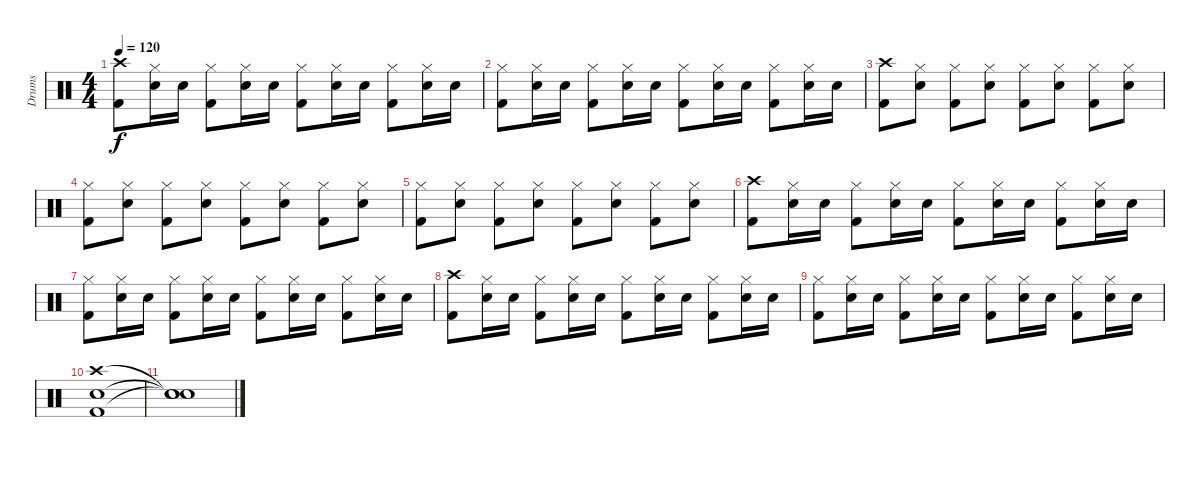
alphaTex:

\track ("Drums" "Drums") {instrument percussion}
\staff {score}
\articulation defaults
\ts (4 4)
\tempo 120
\clef neutral
\ks c
("Crash high (hit)" "Kick (hit) 2").8{dy f} ("Hi-Hat (closed)" "Electric Snare (hit)").16 "Electric Snare (hit)".16 ("Hi-Hat (closed)" "Kick (hit) 2").8 ("Hi-Hat (closed)" "Electric Snare (hit)").16 "Electric Snare (hit)".16 ("Hi-Hat (closed)" "Kick (hit) 2").8 ("Hi-Hat (closed)" "Electric Snare (hit)").16 "Electric Snare (hit)".16 ("Hi-Hat (closed)" "Kick (hit) 2").8 ("Hi-Hat (closed)" "Electric Snare (hit)").16 "Electric Snare (hit)".16 |
("Hi-Hat (closed)" "Kick (hit) 2").8 ("Hi-Hat (closed)" "Electric Snare (hit)").16 "Electric Snare (hit)".16 ("Hi-Hat (closed)" "Kick (hit) 2").8 ("Hi-Hat (closed)" "Electric Snare (hit)").16 "Electric Snare (hit)".16 ("Hi-Hat (closed)" "Kick (hit) 2").8 ("Hi-Hat (closed)" "Electric Snare (hit)").16 "Electric Snare (hit)".16 ("Hi-Hat (closed)" "Kick (hit) 2").8 ("Hi-Hat (closed)" "Electric Snare (hit)").16 "Electric Snare (hit)".16 |
("Crash high (hit)" "Kick (hit) 2").8 ("Hi-Hat (closed)" "Electric Snare (hit)").8 ("Hi-Hat (closed)" "Kick (hit) 2").8 ("Hi-Hat (closed)" "Electric Snare (hit)").8 ("Hi-Hat (closed)" "Kick (hit) 2").8 ("Hi-Hat (closed)" "Electric Snare (hit)").8 ("Hi-Hat (closed)" "Kick (hit) 2").8 ("Hi-Hat (closed)" "Electric Snare (hit)").8 |
("Hi-Hat (closed)" "Kick (hit) 2").8 ("Hi-Hat (closed)" "Electric Snare (hit)").8 ("Hi-Hat (closed)" "Kick (hit) 2").8 ("Hi-Hat (closed)" "Electric Snare (hit)").8 ("Hi-Hat (closed)" "Kick (hit) 2").8 ("Hi-Hat (closed)" "Electric Snare (hit)").8 ("Hi-Hat (closed)" "Kick (hit) 2").8 ("Hi-Hat (closed)" "Electric Snare (hit)").8 |
("Hi-Hat (closed)" "Kick (hit) 2").8 ("Hi-Hat (closed)" "Electric Snare (hit)").8 ("Hi-Hat (closed)" "Kick (hit) 2").8 ("Hi-Hat (closed)" "Electric Snare (hit)").8 ("Hi-Hat (closed)" "Kick (hit) 2").8 ("Hi-Hat (closed)" "Electric Snare (hit)").8 ("Hi-Hat (closed)" "Kick (hit) 2").8 ("Hi-Hat (closed)" "Electric Snare (hit)").8 |
("Crash high (hit)" "Kick (hit) 2").8 ("Hi-Hat (closed)" "Electric Snare (hit)").16 "Electric Snare (hit)".16 ("Hi-Hat (closed)" "Kick (hit) 2").8 ("Hi-Hat (closed)" "Electric Snare (hit)").16 "Electric Snare (hit)".16 ("Hi-Hat (closed)" "Kick (hit) 2").8 ("Hi-Hat (closed)" "Electric Snare (hit)").16 "Electric Snare (hit)".16 ("Hi-Hat (closed)" "Kick (hit) 2").8 ("Hi-Hat (closed)" "Electric Snare (hit)").16 "Electric Snare (hit)".16 |
("Hi-Hat (closed)" "Kick (hit) 2").8 ("Hi-Hat (closed)" "Electric Snare (hit)").16 "Electric Snare (hit)".16 ("Hi-Hat (closed)" "Kick (hit) 2").8 ("Hi-Hat (closed)" "Electric Snare (hit)").16 "Electric Snare (hit)".16 ("Hi-Hat (closed)" "Kick (hit) 2").8 ("Hi-Hat (closed)" "Electric Snare (hit)").16 "Electric Snare (hit)".16 ("Hi-Hat (closed)" "Kick (hit) 2").8 ("Hi-Hat (closed)" "Electric Snare (hit)").16 "Electric Snare (hit)".16 |
("Crash high (hit)" "Kick (hit) 2").8 ("Hi-Hat (closed)" "Electric Snare (hit)").16 "Electric Snare (hit)".16 ("Hi-Hat (closed)" "Kick (hit) 2").8 ("Hi-Hat (closed)" "Electric Snare (hit)").16 "Electric Snare (hit)".16 ("Hi-Hat (closed)" "Kick (hit) 2").8 ("Hi-Hat (closed)" "Electric Snare (hit)").16 "Electric Snare (hit)".16 ("Hi-Hat (closed)" "Kick (hit) 2").8 ("Hi-Hat (closed)" "Electric Snare (hit)").16 "Electric Snare (hit)".16 |
("Hi-Hat (closed)" "Kick (hit) 2").8 ("Hi-Hat (closed)" "Electric Snare (hit)").16 "Electric Snare (hit)".16 ("Hi-Hat (closed)" "Kick (hit) 2").8 ("Hi-Hat (closed)" "Electric Snare (hit)").16 "Electric Snare (hit)".16 ("Hi-Hat (closed)" "Kick (hit) 2").8 ("Hi-Hat (closed)" "Electric Snare (hit)").16 "Electric Snare (hit)".16 ("Hi-Hat (closed)" "Kick (hit) 2").8 ("Hi-Hat (closed)" "Electric Snare (hit)").16 "Electric Snare (hit)".16 |
("Crash high (hit)" "Electric Snare (hit)" "Kick (hit) 2").1 |
("Snare (hit)"{t} "Snare (hit)"{t} "Snare (hit)"{t}).1
